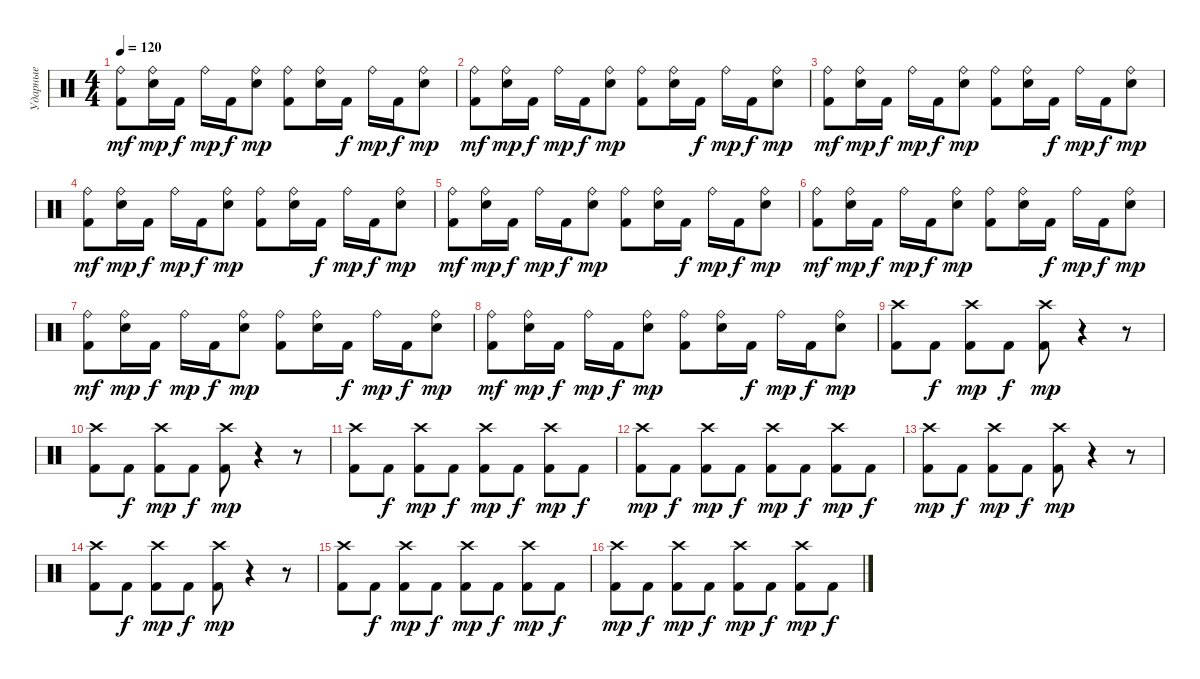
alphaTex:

\track ("Ударные" "Ударные") {instrument percussion}
\staff {score}
\articulation defaults
\ts (4 4)
\tempo 120
\clef neutral
\ks c
("Ride (bell)" "Kick (hit) 2").8{dy mf} ("Ride (bell)" "Electric Snare (hit)").16{dy mp} "Kick (hit) 2".16{dy f} "Ride (bell)".16{dy mp} "Kick (hit) 2".16{dy f} ("Ride (bell)" "Electric Snare (hit)").8{dy mp} ("Ride (bell)" "Kick (hit) 2").8 ("Ride (bell)" "Electric Snare (hit)").16 "Kick (hit) 2".16{dy f} "Ride (bell)".16{dy mp} "Kick (hit) 2".16{dy f} ("Ride (bell)" "Electric Snare (hit)").8{dy mp} |
("Ride (bell)" "Kick (hit) 2").8{dy mf} ("Ride (bell)" "Electric Snare (hit)").16{dy mp} "Kick (hit) 2".16{dy f} "Ride (bell)".16{dy mp} "Kick (hit) 2".16{dy f} ("Ride (bell)" "Electric Snare (hit)").8{dy mp} ("Ride (bell)" "Kick (hit) 2").8 ("Ride (bell)" "Electric Snare (hit)").16 "Kick (hit) 2".16{dy f} "Ride (bell)".16{dy mp} "Kick (hit) 2".16{dy f} ("Ride (bell)" "Electric Snare (hit)").8{dy mp} |
("Ride (bell)" "Kick (hit) 2").8{dy mf} ("Ride (bell)" "Electric Snare (hit)").16{dy mp} "Kick (hit) 2".16{dy f} "Ride (bell)".16{dy mp} "Kick (hit) 2".16{dy f} ("Ride (bell)" "Electric Snare (hit)").8{dy mp} ("Ride (bell)" "Kick (hit) 2").8 ("Ride (bell)" "Electric Snare (hit)").16 "Kick (hit) 2".16{dy f} "Ride (bell)".16{dy mp} "Kick (hit) 2".16{dy f} ("Ride (bell)" "Electric Snare (hit)").8{dy mp} |
("Ride (bell)" "Kick (hit) 2").8{dy mf} ("Ride (bell)" "Electric Snare (hit)").16{dy mp} "Kick (hit) 2".16{dy f} "Ride (bell)".16{dy mp} "Kick (hit) 2".16{dy f} ("Ride (bell)" "Electric Snare (hit)").8{dy mp} ("Ride (bell)" "Kick (hit) 2").8 ("Ride (bell)" "Electric Snare (hit)").16 "Kick (hit) 2".16{dy f} "Ride (bell)".16{dy mp} "Kick (hit) 2".16{dy f} ("Ride (bell)" "Electric Snare (hit)").8{dy mp} |
("Ride (bell)" "Kick (hit) 2").8{dy mf} ("Ride (bell)" "Electric Snare (hit)").16{dy mp} "Kick (hit) 2".16{dy f} "Ride (bell)".16{dy mp} "Kick (hit) 2".16{dy f} ("Ride (bell)" "Electric Snare (hit)").8{dy mp} ("Ride (bell)" "Kick (hit) 2").8 ("Ride (bell)" "Electric Snare (hit)").16 "Kick (hit) 2".16{dy f} "Ride (bell)".16{dy mp} "Kick (hit) 2".16{dy f} ("Ride (bell)" "Electric Snare (hit)").8{dy mp} |
("Ride (bell)" "Kick (hit) 2").8{dy mf} ("Ride (bell)" "Electric Snare (hit)").16{dy mp} "Kick (hit) 2".16{dy f} "Ride (bell)".16{dy mp} "Kick (hit) 2".16{dy f} ("Ride (bell)" "Electric Snare (hit)").8{dy mp} ("Ride (bell)" "Kick (hit) 2").8 ("Ride (bell)" "Electric Snare (hit)").16 "Kick (hit) 2".16{dy f} "Ride (bell)".16{dy mp} "Kick (hit) 2".16{dy f} ("Ride (bell)" "Electric Snare (hit)").8{dy mp} |
("Ride (bell)" "Kick (hit) 2").8{dy mf} ("Ride (bell)" "Electric Snare (hit)").16{dy mp} "Kick (hit) 2".16{dy f} "Ride (bell)".16{dy mp} "Kick (hit) 2".16{dy f} ("Ride (bell)" "Electric Snare (hit)").8{dy mp} ("Ride (bell)" "Kick (hit) 2").8 ("Ride (bell)" "Electric Snare (hit)").16 "Kick (hit) 2".16{dy f} "Ride (bell)".16{dy mp} "Kick (hit) 2".16{dy f} ("Ride (bell)" "Electric Snare (hit)").8{dy mp} |
("Ride (bell)" "Kick (hit) 2").8{dy mf} ("Ride (bell)" "Electric Snare (hit)").16{dy mp} "Kick (hit) 2".16{dy f} "Ride (bell)".16{dy mp} "Kick (hit) 2".16{dy f} ("Ride (bell)" "Electric Snare (hit)").8{dy mp} ("Ride (bell)" "Kick (hit) 2").8 ("Ride (bell)" "Electric Snare (hit)").16 "Kick (hit) 2".16{dy f} "Ride (bell)".16{dy mp} "Kick (hit) 2".16{dy f} ("Ride (bell)" "Electric Snare (hit)").8{dy mp} |
("Crash high (hit)" "Kick (hit) 2").8 "Kick (hit) 2".8{dy f} ("Crash high (hit)" "Kick (hit) 2").8{dy mp} "Kick (hit) 2".8{dy f} ("Crash high (hit)" "Kick (hit) 2").8{dy mp} r.4 r.8 |
("Crash high (hit)" "Kick (hit) 2").8 "Kick (hit) 2".8{dy f} ("Crash high (hit)" "Kick (hit) 2").8{dy mp} "Kick (hit) 2".8{dy f} ("Crash high (hit)" "Kick (hit) 2").8{dy mp} r.4 r.8 |
("Crash high (hit)" "Kick (hit) 2").8 "Kick (hit) 2".8{dy f} ("Crash high (hit)" "Kick (hit) 2").8{dy mp} "Kick (hit) 2".8{dy f} ("Crash high (hit)" "Kick (hit) 2").8{dy mp} "Kick (hit) 2".8{dy f} ("Crash high (hit)" "Kick (hit) 2").8{dy mp} "Kick (hit) 2".8{dy f} |
("Crash high (hit)" "Kick (hit) 2").8{dy mp} "Kick (hit) 2".8{dy f} ("Crash high (hit)" "Kick (hit) 2").8{dy mp} "Kick (hit) 2".8{dy f} ("Crash high (hit)" "Kick (hit) 2").8{dy mp} "Kick (hit) 2".8{dy f} ("Crash high (hit)" "Kick (hit) 2").8{dy mp} "Kick (hit) 2".8{dy f} |
("Crash high (hit)" "Kick (hit) 2").8{dy mp} "Kick (hit) 2".8{dy f} ("Crash high (hit)" "Kick (hit) 2").8{dy mp} "Kick (hit) 2".8{dy f} ("Crash high (hit)" "Kick (hit) 2").8{dy mp} r.4 r.8 |
("Crash high (hit)" "Kick (hit) 2").8 "Kick (hit) 2".8{dy f} ("Crash high (hit)" "Kick (hit) 2").8{dy mp} "Kick (hit) 2".8{dy f} ("Crash high (hit)" "Kick (hit) 2").8{dy mp} r.4 r.8 |
("Crash high (hit)" "Kick (hit) 2").8 "Kick (hit) 2".8{dy f} ("Crash high (hit)" "Kick (hit) 2").8{dy mp} "Kick (hit) 2".8{dy f} ("Crash high (hit)" "Kick (hit) 2").8{dy mp} "Kick (hit) 2".8{dy f} ("Crash high (hit)" "Kick (hit) 2").8{dy mp} "Kick (hit) 2".8{dy f} |
("Crash high (hit)" "Kick (hit) 2").8{dy mp} "Kick (hit) 2".8{dy f} ("Crash high (hit)" "Kick (hit) 2").8{dy mp} "Kick (hit) 2".8{dy f} ("Crash high (hit)" "Kick (hit) 2").8{dy mp} "Kick (hit) 2".8{dy f} ("Crash high (hit)" "Kick (hit) 2").8{dy mp} "Kick (hit) 2".8{dy f}
